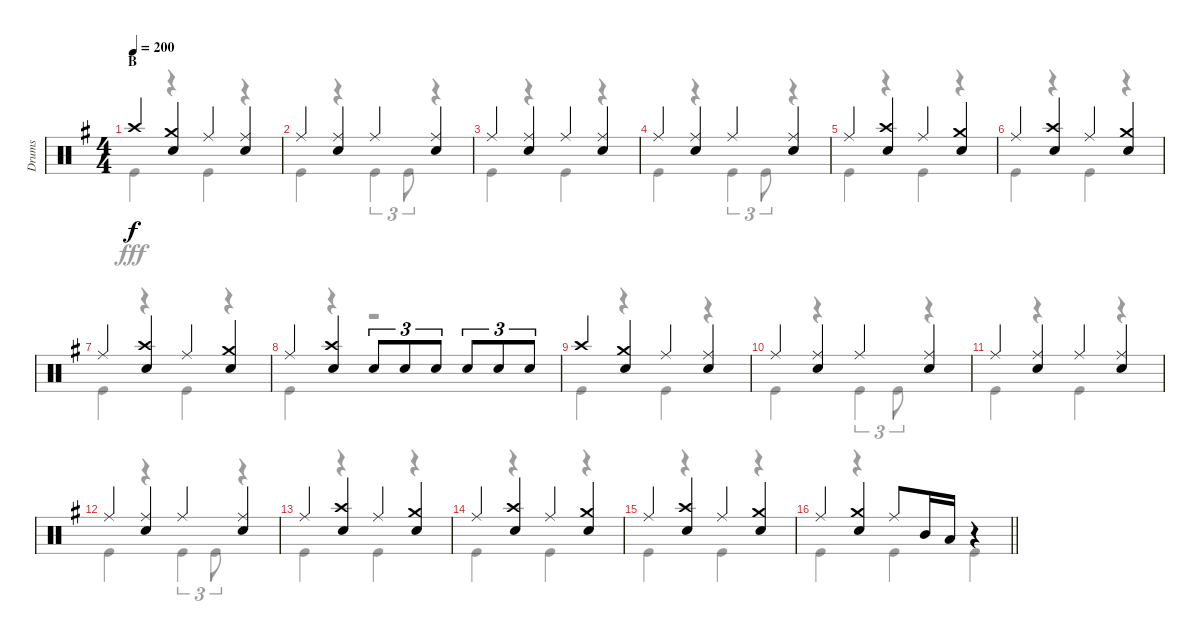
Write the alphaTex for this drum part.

\track ("Drums" "Drums") {instrument percussion}
\staff {score}
\articulation defaults
\voice
\ts (4 4)
\section ("" "B")
\tempo 200
\clef neutral
\ks g "Crash high (hit)".4{dy f}
("Crash medium (hit)" "Snare (hit) 2").4 "Ride (middle)".4 ("Ride (middle)" "Snare (hit) 2").4 |
"Ride (middle)".4 ("Ride (middle)" "Snare (hit) 2").4 "Ride (middle)".4 ("Ride (middle)" "Snare (hit) 2").4 |
"Ride (middle)".4 ("Ride (middle)" "Snare (hit) 2").4 "Ride (middle)".4 ("Ride (middle)" "Snare (hit) 2").4 |
"Ride (middle)".4 ("Ride (middle)" "Snare (hit) 2").4 "Ride (middle)".4 ("Ride (middle)" "Snare (hit) 2").4 |
"Ride (middle)".4 ("Crash high (hit)" "Snare (hit) 2").4 "Ride (middle)".4 ("Crash medium (hit)" "Snare (hit) 2").4 |
"Ride (middle)".4 ("Crash high (hit)" "Snare (hit) 2").4 "Ride (middle)".4 ("Crash medium (hit)" "Snare (hit) 2").4 |
"Ride (middle)".4 ("Crash high (hit)" "Snare (hit) 2").4 "Ride (middle)".4 ("Crash medium (hit)" "Snare (hit) 2").4 |
"Ride (middle)".4 ("Crash high (hit)" "Snare (hit) 2").4 "Snare (hit) 2".8{tu (3 2)} "Snare (hit) 2".8{tu (3 2)} "Snare (hit) 2".8{tu (3 2)} "Snare (hit) 2".8{tu (3 2)} "Snare (hit) 2".8{tu (3 2)} "Snare (hit) 2".8{tu (3 2)} |
"Crash high (hit)".4 ("Crash medium (hit)" "Snare (hit) 2").4 "Ride (middle)".4 ("Ride (middle)" "Snare (hit) 2").4 |
"Ride (middle)".4 ("Ride (middle)" "Snare (hit) 2").4 "Ride (middle)".4 ("Ride (middle)" "Snare (hit) 2").4 |
"Ride (middle)".4 ("Ride (middle)" "Snare (hit) 2").4 "Ride (middle)".4 ("Ride (middle)" "Snare (hit) 2").4 |
"Ride (middle)".4 ("Ride (middle)" "Snare (hit) 2").4 "Ride (middle)".4 ("Ride (middle)" "Snare (hit) 2").4 |
"Ride (middle)".4 ("Crash high (hit)" "Snare (hit) 2").4 "Ride (middle)".4 ("Crash medium (hit)" "Snare (hit) 2").4 |
"Ride (middle)".4 ("Crash high (hit)" "Snare (hit) 2").4 "Ride (middle)".4 ("Crash medium (hit)" "Snare (hit) 2").4 |
"Ride (middle)".4 ("Crash high (hit)" "Snare (hit) 2").4 "Ride (middle)".4 ("Crash medium (hit)" "Snare (hit) 2").4 |
\barLineRight lightlight "Ride (middle)".4
("Crash medium (hit)" "Snare (hit) 2").4 "Ride (middle)".8 "Mid Tom (hit)".16 "Low Tom (hit)".16 r.4
\voice
\clef neutral
\ottava regular
\simile none
\ks g "Kick (hit)".4{dy fff}
r.4 "Kick (hit)".4 r.4 |
"Kick (hit)".4 r.4 "Kick (hit)".4{tu (3 2)} "Kick (hit)".8{tu (3 2)} r.4 |
"Kick (hit)".4 r.4 "Kick (hit)".4 r.4 |
"Kick (hit)".4 r.4 "Kick (hit)".4{tu (3 2)} "Kick (hit)".8{tu (3 2)} r.4 |
"Kick (hit)".4 r.4 "Kick (hit)".4 r.4 |
"Kick (hit)".4 r.4 "Kick (hit)".4 r.4 |
"Kick (hit)".4 r.4 "Kick (hit)".4 r.4 |
"Kick (hit)".4 r.4 r.2 |
"Kick (hit)".4 r.4 "Kick (hit)".4 r.4 |
"Kick (hit)".4 r.4 "Kick (hit)".4{tu (3 2)} "Kick (hit)".8{tu (3 2)} r.4 |
"Kick (hit)".4 r.4 "Kick (hit)".4 r.4 |
"Kick (hit)".4 r.4 "Kick (hit)".4{tu (3 2)} "Kick (hit)".8{tu (3 2)} r.4 |
"Kick (hit)".4 r.4 "Kick (hit)".4 r.4 |
"Kick (hit)".4 r.4 "Kick (hit)".4 r.4 |
"Kick (hit)".4 r.4 "Kick (hit)".4 r.4 |
\barLineRight lightlight "Kick (hit)".4
r.4 "Kick (hit)".4 "Kick (hit)".4
